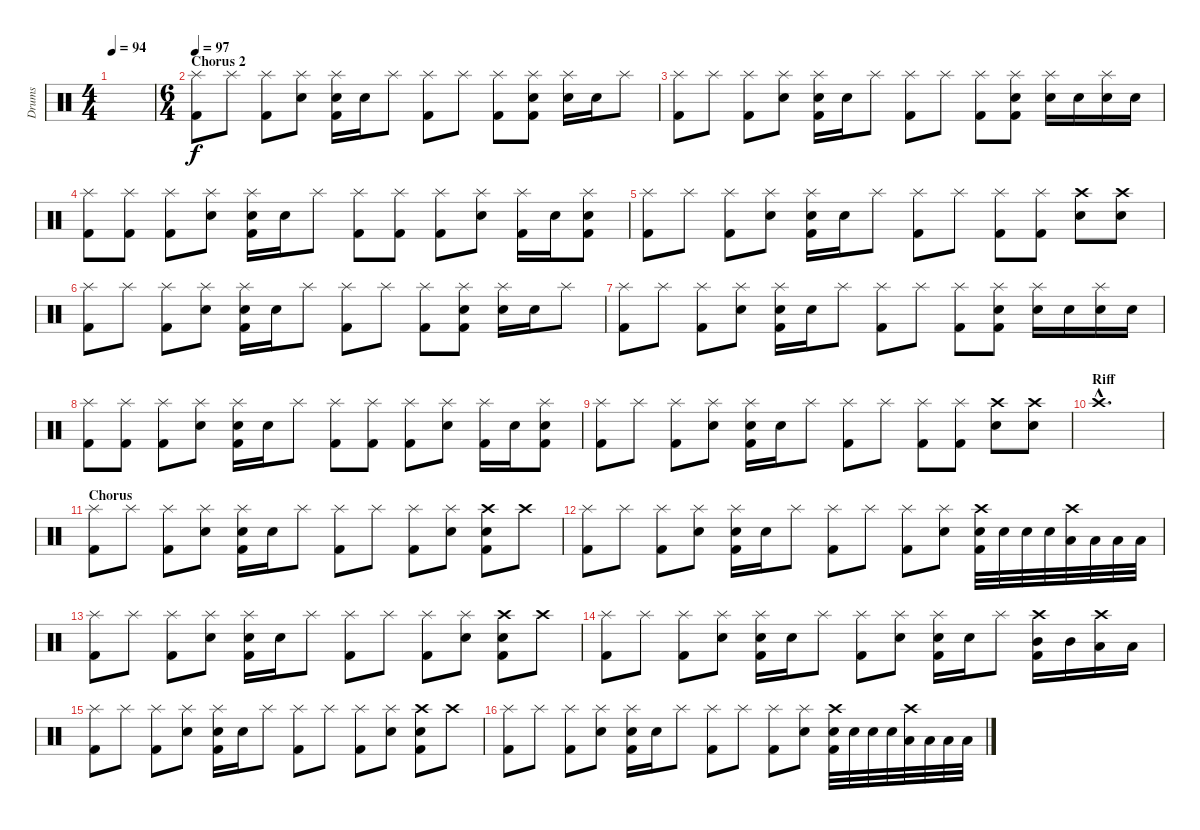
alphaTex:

\track ("Drums" "Drums") {instrument percussion}
\staff {score}
\articulation defaults
\ts (4 4)
\tempo 94
\clef neutral
\ks c
|
\ts (6 4)
\section ("" "Chorus 2")
\tempo 97
("Splash (hit)" "Kick (hit) 2").8 "Splash (hit)".8 ("Splash (hit)" "Kick (hit) 2").8 ("Splash (hit)" "Snare (hit) 2").8 ("Splash (hit)" "Snare (hit) 2" "Kick (hit) 2").16 "Snare (hit) 2".16 "Splash (hit)".8 ("Splash (hit)" "Kick (hit) 2").8 "Splash (hit)".8 ("Splash (hit)" "Kick (hit) 2").8 ("Splash (hit)" "Snare (hit) 2" "Kick (hit) 2").8 ("Splash (hit)" "Snare (hit) 2").16 "Snare (hit) 2".16 "Splash (hit)".8 |
("Splash (hit)" "Kick (hit) 2").8 "Splash (hit)".8 ("Splash (hit)" "Kick (hit) 2").8 ("Splash (hit)" "Snare (hit) 2").8 ("Splash (hit)" "Snare (hit) 2" "Kick (hit) 2").16 "Snare (hit) 2".16 "Splash (hit)".8 ("Splash (hit)" "Kick (hit) 2").8 "Splash (hit)".8 ("Splash (hit)" "Kick (hit) 2").8 ("Splash (hit)" "Snare (hit) 2" "Kick (hit) 2").8 ("Splash (hit)" "Snare (hit) 2").16 "Snare (hit) 2".16 ("Splash (hit)" "Snare (hit) 2").16 "Snare (hit) 2".16 |
("Splash (hit)" "Kick (hit) 2").8 ("Splash (hit)" "Kick (hit) 2").8 ("Splash (hit)" "Kick (hit) 2").8 ("Splash (hit)" "Snare (hit) 2").8 ("Splash (hit)" "Snare (hit) 2" "Kick (hit) 2").16 "Snare (hit) 2".16 "Splash (hit)".8 ("Splash (hit)" "Kick (hit) 2").8 ("Splash (hit)" "Kick (hit) 2").8 ("Splash (hit)" "Kick (hit) 2").8 ("Splash (hit)" "Snare (hit) 2").8 ("Splash (hit)" "Kick (hit) 2").16 "Snare (hit) 2".16 ("Splash (hit)" "Snare (hit) 2" "Kick (hit) 2").8 |
("Splash (hit)" "Kick (hit) 2").8 "Splash (hit)".8 ("Splash (hit)" "Kick (hit) 2").8 ("Splash (hit)" "Snare (hit) 2").8 ("Splash (hit)" "Snare (hit) 2" "Kick (hit) 2").16 "Snare (hit) 2".16 "Splash (hit)".8 ("Splash (hit)" "Kick (hit) 2").8 "Splash (hit)".8 ("Splash (hit)" "Kick (hit) 2").8 ("Splash (hit)" "Kick (hit) 2").8 ("Crash high (hit)" "Snare (hit) 2").8 ("Crash high (hit)" "Snare (hit) 2").8 |
("Splash (hit)" "Kick (hit) 2").8 "Splash (hit)".8 ("Splash (hit)" "Kick (hit) 2").8 ("Splash (hit)" "Snare (hit) 2").8 ("Splash (hit)" "Snare (hit) 2" "Kick (hit) 2").16 "Snare (hit) 2".16 "Splash (hit)".8 ("Splash (hit)" "Kick (hit) 2").8 "Splash (hit)".8 ("Splash (hit)" "Kick (hit) 2").8 ("Splash (hit)" "Snare (hit) 2" "Kick (hit) 2").8 ("Splash (hit)" "Snare (hit) 2").16 "Snare (hit) 2".16 "Splash (hit)".8 |
("Splash (hit)" "Kick (hit) 2").8 "Splash (hit)".8 ("Splash (hit)" "Kick (hit) 2").8 ("Splash (hit)" "Snare (hit) 2").8 ("Splash (hit)" "Snare (hit) 2" "Kick (hit) 2").16 "Snare (hit) 2".16 "Splash (hit)".8 ("Splash (hit)" "Kick (hit) 2").8 "Splash (hit)".8 ("Splash (hit)" "Kick (hit) 2").8 ("Splash (hit)" "Snare (hit) 2" "Kick (hit) 2").8 ("Splash (hit)" "Snare (hit) 2").16 "Snare (hit) 2".16 ("Splash (hit)" "Snare (hit) 2").16 "Snare (hit) 2".16 |
("Splash (hit)" "Kick (hit) 2").8 ("Splash (hit)" "Kick (hit) 2").8 ("Splash (hit)" "Kick (hit) 2").8 ("Splash (hit)" "Snare (hit) 2").8 ("Splash (hit)" "Snare (hit) 2" "Kick (hit) 2").16 "Snare (hit) 2".16 "Splash (hit)".8 ("Splash (hit)" "Kick (hit) 2").8 ("Splash (hit)" "Kick (hit) 2").8 ("Splash (hit)" "Kick (hit) 2").8 ("Splash (hit)" "Snare (hit) 2").8 ("Splash (hit)" "Kick (hit) 2").16 "Snare (hit) 2".16 ("Splash (hit)" "Snare (hit) 2" "Kick (hit) 2").8 |
("Splash (hit)" "Kick (hit) 2").8 "Splash (hit)".8 ("Splash (hit)" "Kick (hit) 2").8 ("Splash (hit)" "Snare (hit) 2").8 ("Splash (hit)" "Snare (hit) 2" "Kick (hit) 2").16 "Snare (hit) 2".16 "Splash (hit)".8 ("Splash (hit)" "Kick (hit) 2").8 "Splash (hit)".8 ("Splash (hit)" "Kick (hit) 2").8 ("Splash (hit)" "Kick (hit) 2").8 ("Crash high (hit)" "Snare (hit) 2").8 ("Crash high (hit)" "Snare (hit) 2").8 |
\section ("" "Riff")
"Crash high (hit)"{hac}.1{d} |
\section ("" "Chorus")
("Splash (hit)" "Kick (hit) 2").8 "Splash (hit)".8 ("Splash (hit)" "Kick (hit) 2").8 ("Splash (hit)" "Snare (hit) 2").8 ("Splash (hit)" "Snare (hit) 2" "Kick (hit) 2").16 "Snare (hit) 2".16 "Splash (hit)".8 ("Splash (hit)" "Kick (hit) 2").8 "Splash (hit)".8 ("Splash (hit)" "Kick (hit) 2").8 ("Splash (hit)" "Snare (hit) 2").8 ("Crash high (hit)" "Snare (hit) 2" "Kick (hit) 2").8 "Crash high (hit)".8 |
("Splash (hit)" "Kick (hit) 2").8 "Splash (hit)".8 ("Splash (hit)" "Kick (hit) 2").8 ("Splash (hit)" "Snare (hit) 2").8 ("Splash (hit)" "Snare (hit) 2" "Kick (hit) 2").16 "Snare (hit) 2".16 "Splash (hit)".8 ("Splash (hit)" "Kick (hit) 2").8 "Splash (hit)".8 ("Splash (hit)" "Kick (hit) 2").8 ("Splash (hit)" "Snare (hit) 2").8 ("Crash high (hit)" "Snare (hit) 2" "Kick (hit) 2").32 "Snare (hit) 2".32 "Snare (hit) 2".32 "Snare (hit) 2".32 ("Crash high (hit)" "Low Tom (hit)").32 "Low Tom (hit)".32 "Low Tom (hit)".32 "Low Tom (hit)".32 |
("Splash (hit)" "Kick (hit) 2").8 "Splash (hit)".8 ("Splash (hit)" "Kick (hit) 2").8 ("Splash (hit)" "Snare (hit) 2").8 ("Splash (hit)" "Snare (hit) 2" "Kick (hit) 2").16 "Snare (hit) 2".16 "Splash (hit)".8 ("Splash (hit)" "Kick (hit) 2").8 "Splash (hit)".8 ("Splash (hit)" "Kick (hit) 2").8 ("Splash (hit)" "Snare (hit) 2").8 ("Crash high (hit)" "Snare (hit) 2" "Kick (hit) 2").8 "Crash high (hit)".8 |
("Splash (hit)" "Kick (hit) 2").8 "Splash (hit)".8 ("Splash (hit)" "Kick (hit) 2").8 ("Splash (hit)" "Snare (hit) 2").8 ("Splash (hit)" "Snare (hit) 2" "Kick (hit) 2").16 "Snare (hit) 2".16 "Splash (hit)".8 ("Splash (hit)" "Kick (hit) 2").8 ("Splash (hit)" "Snare (hit) 2").8 ("Splash (hit)" "Snare (hit) 2" "Kick (hit) 2").16 "Snare (hit) 2".16 "Splash (hit)".8 ("Crash high (hit)" "Mid Tom (hit)" "Kick (hit) 2").16 "Mid Tom (hit)".16 ("Crash high (hit)" "Low Tom (hit)").16 "Low Tom (hit)".16 |
("Splash (hit)" "Kick (hit) 2").8 "Splash (hit)".8 ("Splash (hit)" "Kick (hit) 2").8 ("Splash (hit)" "Snare (hit) 2").8 ("Splash (hit)" "Snare (hit) 2" "Kick (hit) 2").16 "Snare (hit) 2".16 "Splash (hit)".8 ("Splash (hit)" "Kick (hit) 2").8 "Splash (hit)".8 ("Splash (hit)" "Kick (hit) 2").8 ("Splash (hit)" "Snare (hit) 2").8 ("Crash high (hit)" "Snare (hit) 2" "Kick (hit) 2").8 "Crash high (hit)".8 |
("Splash (hit)" "Kick (hit) 2").8 "Splash (hit)".8 ("Splash (hit)" "Kick (hit) 2").8 ("Splash (hit)" "Snare (hit) 2").8 ("Splash (hit)" "Snare (hit) 2" "Kick (hit) 2").16 "Snare (hit) 2".16 "Splash (hit)".8 ("Splash (hit)" "Kick (hit) 2").8 "Splash (hit)".8 ("Splash (hit)" "Kick (hit) 2").8 ("Splash (hit)" "Snare (hit) 2").8 ("Crash high (hit)" "Snare (hit) 2" "Kick (hit) 2").32 "Snare (hit) 2".32 "Snare (hit) 2".32 "Snare (hit) 2".32 ("Crash high (hit)" "Low Tom (hit)").32 "Low Tom (hit)".32 "Low Tom (hit)".32 "Low Tom (hit)".32
